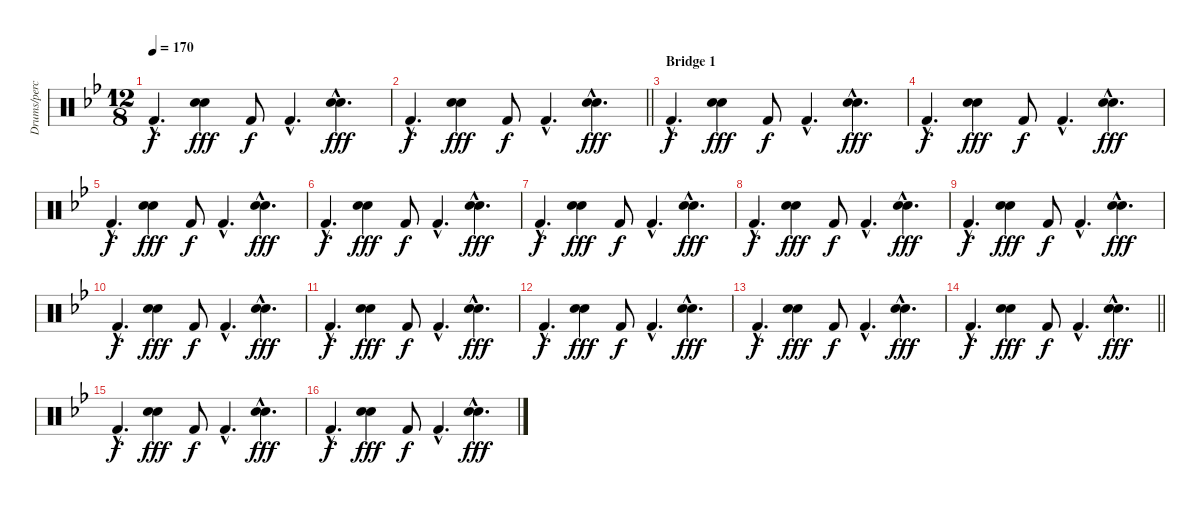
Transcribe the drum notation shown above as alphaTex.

\track ("Drums/percussion" "Drums/perc") {instrument percussion}
\staff {score}
\articulation defaults
\ts (12 8)
\tempo 170
\clef neutral
\ks bb "Kick (hit) 2"{hac}.4{d dy f}
("Hand Clap (hit)" "Snare (hit) 2").4{dy fff} "Kick (hit) 2".8{dy f} "Kick (hit) 2"{hac}.4{d} ("Hand Clap (hit)"{hac} "Snare (hit) 2"{hac}).4{d dy fff} |
\barLineRight lightlight "Kick (hit) 2"{hac}.4{d dy f}
("Hand Clap (hit)" "Snare (hit) 2").4{dy fff} "Kick (hit) 2".8{dy f} "Kick (hit) 2"{hac}.4{d} ("Hand Clap (hit)"{hac} "Snare (hit) 2"{hac}).4{d dy fff} |
\section ("" "Bridge 1")
"Kick (hit) 2"{hac}.4{d dy f} ("Hand Clap (hit)" "Snare (hit) 2").4{dy fff} "Kick (hit) 2".8{dy f} "Kick (hit) 2"{hac}.4{d} ("Hand Clap (hit)"{hac} "Snare (hit) 2"{hac}).4{d dy fff} |
"Kick (hit) 2"{hac}.4{d dy f} ("Hand Clap (hit)" "Snare (hit) 2").4{dy fff} "Kick (hit) 2".8{dy f} "Kick (hit) 2"{hac}.4{d} ("Hand Clap (hit)"{hac} "Snare (hit) 2"{hac}).4{d dy fff} |
"Kick (hit) 2"{hac}.4{d dy f} ("Hand Clap (hit)" "Snare (hit) 2").4{dy fff} "Kick (hit) 2".8{dy f} "Kick (hit) 2"{hac}.4{d} ("Hand Clap (hit)"{hac} "Snare (hit) 2"{hac}).4{d dy fff} |
"Kick (hit) 2"{hac}.4{d dy f} ("Hand Clap (hit)" "Snare (hit) 2").4{dy fff} "Kick (hit) 2".8{dy f} "Kick (hit) 2"{hac}.4{d} ("Hand Clap (hit)"{hac} "Snare (hit) 2"{hac}).4{d dy fff} |
"Kick (hit) 2"{hac}.4{d dy f} ("Hand Clap (hit)" "Snare (hit) 2").4{dy fff} "Kick (hit) 2".8{dy f} "Kick (hit) 2"{hac}.4{d} ("Hand Clap (hit)"{hac} "Snare (hit) 2"{hac}).4{d dy fff} |
"Kick (hit) 2"{hac}.4{d dy f} ("Hand Clap (hit)" "Snare (hit) 2").4{dy fff} "Kick (hit) 2".8{dy f} "Kick (hit) 2"{hac}.4{d} ("Hand Clap (hit)"{hac} "Snare (hit) 2"{hac}).4{d dy fff} |
"Kick (hit) 2"{hac}.4{d dy f} ("Hand Clap (hit)" "Snare (hit) 2").4{dy fff} "Kick (hit) 2".8{dy f} "Kick (hit) 2"{hac}.4{d} ("Hand Clap (hit)"{hac} "Snare (hit) 2"{hac}).4{d dy fff} |
"Kick (hit) 2"{hac}.4{d dy f} ("Hand Clap (hit)" "Snare (hit) 2").4{dy fff} "Kick (hit) 2".8{dy f} "Kick (hit) 2"{hac}.4{d} ("Hand Clap (hit)"{hac} "Snare (hit) 2"{hac}).4{d dy fff} |
"Kick (hit) 2"{hac}.4{d dy f} ("Hand Clap (hit)" "Snare (hit) 2").4{dy fff} "Kick (hit) 2".8{dy f} "Kick (hit) 2"{hac}.4{d} ("Hand Clap (hit)"{hac} "Snare (hit) 2"{hac}).4{d dy fff} |
"Kick (hit) 2"{hac}.4{d dy f} ("Hand Clap (hit)" "Snare (hit) 2").4{dy fff} "Kick (hit) 2".8{dy f} "Kick (hit) 2"{hac}.4{d} ("Hand Clap (hit)"{hac} "Snare (hit) 2"{hac}).4{d dy fff} |
"Kick (hit) 2"{hac}.4{d dy f} ("Hand Clap (hit)" "Snare (hit) 2").4{dy fff} "Kick (hit) 2".8{dy f} "Kick (hit) 2"{hac}.4{d} ("Hand Clap (hit)"{hac} "Snare (hit) 2"{hac}).4{d dy fff} |
\barLineRight lightlight "Kick (hit) 2"{hac}.4{d dy f}
("Hand Clap (hit)" "Snare (hit) 2").4{dy fff} "Kick (hit) 2".8{dy f} "Kick (hit) 2"{hac}.4{d} ("Hand Clap (hit)"{hac} "Snare (hit) 2"{hac}).4{d dy fff} |
"Kick (hit) 2"{hac}.4{d dy f} ("Hand Clap (hit)" "Snare (hit) 2").4{dy fff} "Kick (hit) 2".8{dy f} "Kick (hit) 2"{hac}.4{d} ("Hand Clap (hit)"{hac} "Snare (hit) 2"{hac}).4{d dy fff} |
"Kick (hit) 2"{hac}.4{d dy f} ("Hand Clap (hit)" "Snare (hit) 2").4{dy fff} "Kick (hit) 2".8{dy f} "Kick (hit) 2"{hac}.4{d} ("Hand Clap (hit)"{hac} "Snare (hit) 2"{hac}).4{d dy fff}
